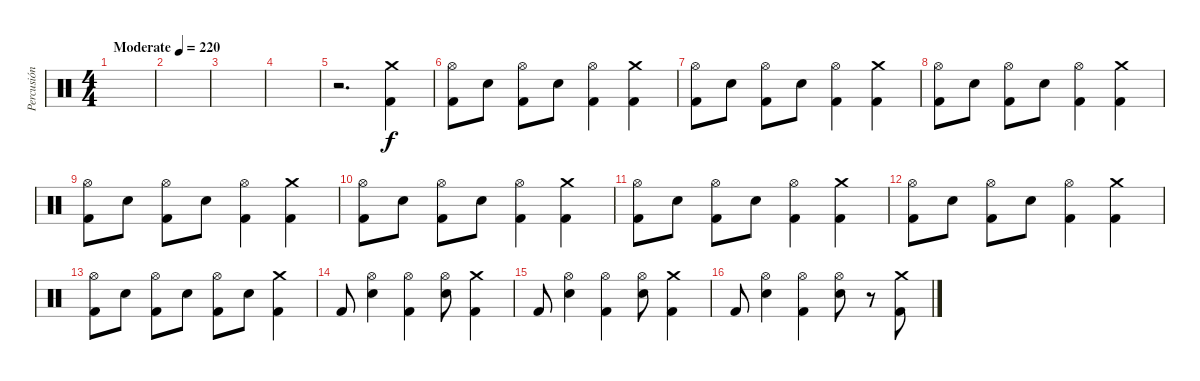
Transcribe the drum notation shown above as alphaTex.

\track ("Percusión" "Percusión") {instrument percussion}
\staff {score}
\articulation defaults
\ts (4 4)
\tempo (220 "Moderate")
\clef neutral
\ks c
|
|
|
|
r.2{d} ("Crash medium (hit)" "Kick (hit) 2").4 |
("Hi-Hat (open)" "Kick (hit) 2").8 "Snare (hit) 2".8 ("Hi-Hat (open)" "Kick (hit) 2").8 "Snare (hit) 2".8 ("Hi-Hat (open)" "Kick (hit) 2").4 ("Crash medium (hit)" "Kick (hit) 2").4 |
("Hi-Hat (open)" "Kick (hit) 2").8 "Snare (hit) 2".8 ("Hi-Hat (open)" "Kick (hit) 2").8 "Snare (hit) 2".8 ("Hi-Hat (open)" "Kick (hit) 2").4 ("Crash medium (hit)" "Kick (hit) 2").4 |
("Hi-Hat (open)" "Kick (hit) 2").8 "Snare (hit) 2".8 ("Hi-Hat (open)" "Kick (hit) 2").8 "Snare (hit) 2".8 ("Hi-Hat (open)" "Kick (hit) 2").4 ("Crash medium (hit)" "Kick (hit) 2").4 |
("Hi-Hat (open)" "Kick (hit) 2").8 "Snare (hit) 2".8 ("Hi-Hat (open)" "Kick (hit) 2").8 "Snare (hit) 2".8 ("Hi-Hat (open)" "Kick (hit) 2").4 ("Crash medium (hit)" "Kick (hit) 2").4 |
("Hi-Hat (open)" "Kick (hit) 2").8 "Snare (hit) 2".8 ("Hi-Hat (open)" "Kick (hit) 2").8 "Snare (hit) 2".8 ("Hi-Hat (open)" "Kick (hit) 2").4 ("Crash medium (hit)" "Kick (hit) 2").4 |
("Hi-Hat (open)" "Kick (hit) 2").8 "Snare (hit) 2".8 ("Hi-Hat (open)" "Kick (hit) 2").8 "Snare (hit) 2".8 ("Hi-Hat (open)" "Kick (hit) 2").4 ("Crash medium (hit)" "Kick (hit) 2").4 |
("Hi-Hat (open)" "Kick (hit) 2").8 "Snare (hit) 2".8 ("Hi-Hat (open)" "Kick (hit) 2").8 "Snare (hit) 2".8 ("Hi-Hat (open)" "Kick (hit) 2").4 ("Crash medium (hit)" "Kick (hit) 2").4 |
("Hi-Hat (open)" "Kick (hit) 2").8 "Snare (hit) 2".8 ("Hi-Hat (open)" "Kick (hit) 2").8 "Snare (hit) 2".8 ("Hi-Hat (open)" "Kick (hit) 2").8 "Snare (hit) 2".8 ("Crash medium (hit)" "Kick (hit) 2").4 |
"Kick (hit) 2".8 ("Hi-Hat (open)" "Snare (hit) 2").4 ("Hi-Hat (open)" "Kick (hit) 2").4 ("Hi-Hat (open)" "Snare (hit) 2").8 ("Crash medium (hit)" "Kick (hit) 2").4 |
"Kick (hit) 2".8 ("Hi-Hat (open)" "Snare (hit) 2").4 ("Hi-Hat (open)" "Kick (hit) 2").4 ("Hi-Hat (open)" "Snare (hit) 2").8 ("Crash medium (hit)" "Kick (hit) 2").4 |
"Kick (hit) 2".8 ("Hi-Hat (open)" "Snare (hit) 2").4 ("Hi-Hat (open)" "Kick (hit) 2").4 ("Hi-Hat (open)" "Snare (hit) 2").8 r.8 ("Crash medium (hit)" "Kick (hit) 2").8
